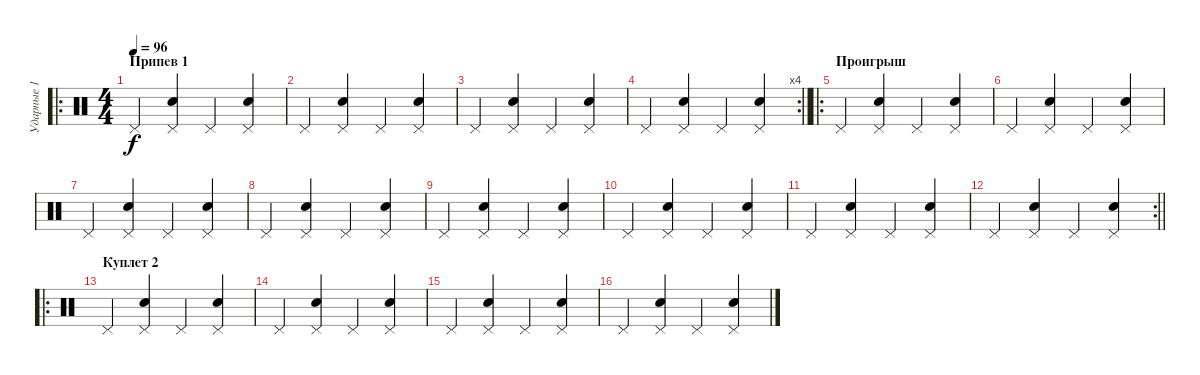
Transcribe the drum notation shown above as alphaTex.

\track ("Ударные 1" "Ударные 1") {instrument percussion}
\staff {score}
\articulation defaults
\ro
\ts (4 4)
\section ("" "Припев 1")
\tempo 96
\clef neutral
\ks c "Pedal Hi-Hat (hit)".4{dy f}
("Pedal Hi-Hat (hit)" "Electric Snare (hit)").4 "Pedal Hi-Hat (hit)".4 ("Pedal Hi-Hat (hit)" "Electric Snare (hit)").4 |
"Pedal Hi-Hat (hit)".4 ("Pedal Hi-Hat (hit)" "Electric Snare (hit)").4 "Pedal Hi-Hat (hit)".4 ("Pedal Hi-Hat (hit)" "Electric Snare (hit)").4 |
"Pedal Hi-Hat (hit)".4 ("Pedal Hi-Hat (hit)" "Electric Snare (hit)").4 "Pedal Hi-Hat (hit)".4 ("Pedal Hi-Hat (hit)" "Electric Snare (hit)").4 |
\rc 4
\barLineRight lightlight "Pedal Hi-Hat (hit)".4
("Pedal Hi-Hat (hit)" "Electric Snare (hit)").4 "Pedal Hi-Hat (hit)".4 ("Pedal Hi-Hat (hit)" "Electric Snare (hit)").4 |
\ro
\section ("" "Проигрыш")
"Pedal Hi-Hat (hit)".4 ("Pedal Hi-Hat (hit)" "Electric Snare (hit)").4 "Pedal Hi-Hat (hit)".4 ("Pedal Hi-Hat (hit)" "Electric Snare (hit)").4 |
"Pedal Hi-Hat (hit)".4 ("Pedal Hi-Hat (hit)" "Electric Snare (hit)").4 "Pedal Hi-Hat (hit)".4 ("Pedal Hi-Hat (hit)" "Electric Snare (hit)").4 |
"Pedal Hi-Hat (hit)".4 ("Pedal Hi-Hat (hit)" "Electric Snare (hit)").4 "Pedal Hi-Hat (hit)".4 ("Pedal Hi-Hat (hit)" "Electric Snare (hit)").4 |
"Pedal Hi-Hat (hit)".4 ("Pedal Hi-Hat (hit)" "Electric Snare (hit)").4 "Pedal Hi-Hat (hit)".4 ("Pedal Hi-Hat (hit)" "Electric Snare (hit)").4 |
"Pedal Hi-Hat (hit)".4 ("Pedal Hi-Hat (hit)" "Electric Snare (hit)").4 "Pedal Hi-Hat (hit)".4 ("Pedal Hi-Hat (hit)" "Electric Snare (hit)").4 |
"Pedal Hi-Hat (hit)".4 ("Pedal Hi-Hat (hit)" "Electric Snare (hit)").4 "Pedal Hi-Hat (hit)".4 ("Pedal Hi-Hat (hit)" "Electric Snare (hit)").4 |
"Pedal Hi-Hat (hit)".4 ("Pedal Hi-Hat (hit)" "Electric Snare (hit)").4 "Pedal Hi-Hat (hit)".4 ("Pedal Hi-Hat (hit)" "Electric Snare (hit)").4 |
\rc 2
\barLineRight lightlight "Pedal Hi-Hat (hit)".4
("Pedal Hi-Hat (hit)" "Electric Snare (hit)").4 "Pedal Hi-Hat (hit)".4 ("Pedal Hi-Hat (hit)" "Electric Snare (hit)").4 |
\ro
\section ("" "Куплет 2")
"Pedal Hi-Hat (hit)".4 ("Pedal Hi-Hat (hit)" "Electric Snare (hit)").4 "Pedal Hi-Hat (hit)".4 ("Pedal Hi-Hat (hit)" "Electric Snare (hit)").4 |
"Pedal Hi-Hat (hit)".4 ("Pedal Hi-Hat (hit)" "Electric Snare (hit)").4 "Pedal Hi-Hat (hit)".4 ("Pedal Hi-Hat (hit)" "Electric Snare (hit)").4 |
"Pedal Hi-Hat (hit)".4 ("Pedal Hi-Hat (hit)" "Electric Snare (hit)").4 "Pedal Hi-Hat (hit)".4 ("Pedal Hi-Hat (hit)" "Electric Snare (hit)").4 |
"Pedal Hi-Hat (hit)".4 ("Pedal Hi-Hat (hit)" "Electric Snare (hit)").4 "Pedal Hi-Hat (hit)".4 ("Pedal Hi-Hat (hit)" "Electric Snare (hit)").4
